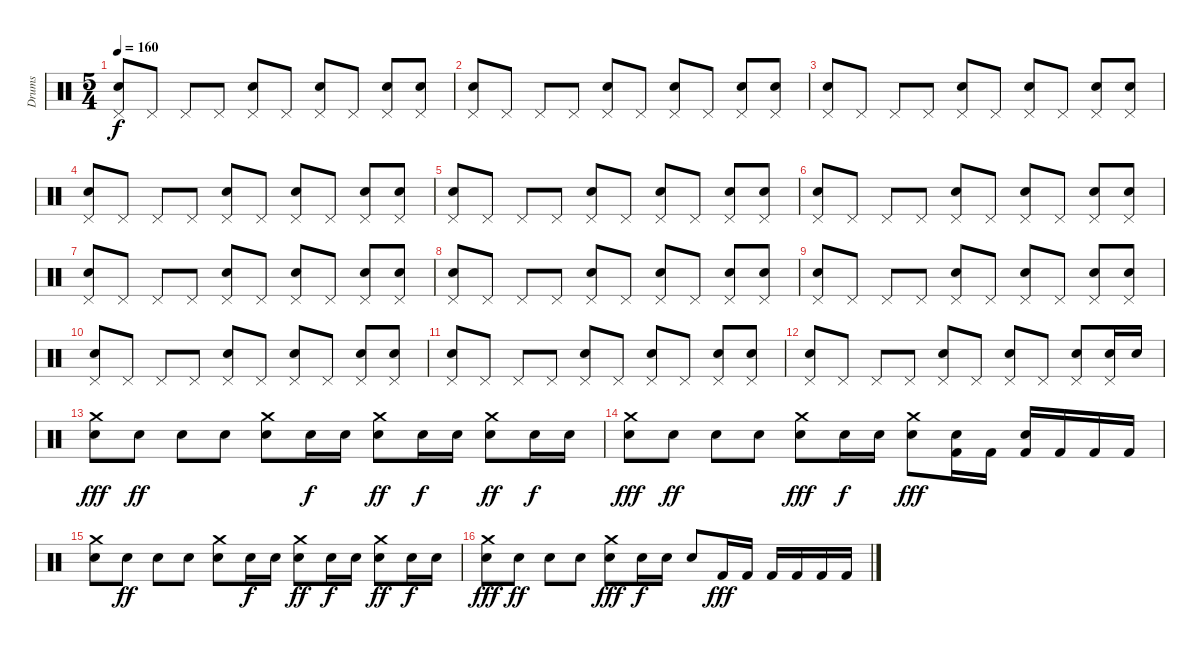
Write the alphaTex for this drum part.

\track ("Drums" "Drums") {instrument percussion}
\staff {score}
\articulation defaults
\ts (5 4)
\tempo 160
\clef neutral
\ks c
("Pedal Hi-Hat (hit)" "Electric Snare (hit)").8{dy f} "Pedal Hi-Hat (hit)".8 "Pedal Hi-Hat (hit)".8 "Pedal Hi-Hat (hit)".8 ("Pedal Hi-Hat (hit)" "Electric Snare (hit)").8 "Pedal Hi-Hat (hit)".8 ("Pedal Hi-Hat (hit)" "Electric Snare (hit)").8 "Pedal Hi-Hat (hit)".8 ("Pedal Hi-Hat (hit)" "Electric Snare (hit)").8 ("Pedal Hi-Hat (hit)" "Electric Snare (hit)").8 |
("Pedal Hi-Hat (hit)" "Electric Snare (hit)").8 "Pedal Hi-Hat (hit)".8 "Pedal Hi-Hat (hit)".8 "Pedal Hi-Hat (hit)".8 ("Pedal Hi-Hat (hit)" "Electric Snare (hit)").8 "Pedal Hi-Hat (hit)".8 ("Pedal Hi-Hat (hit)" "Electric Snare (hit)").8 "Pedal Hi-Hat (hit)".8 ("Pedal Hi-Hat (hit)" "Electric Snare (hit)").8 ("Pedal Hi-Hat (hit)" "Electric Snare (hit)").8 |
("Pedal Hi-Hat (hit)" "Electric Snare (hit)").8 "Pedal Hi-Hat (hit)".8 "Pedal Hi-Hat (hit)".8 "Pedal Hi-Hat (hit)".8 ("Pedal Hi-Hat (hit)" "Electric Snare (hit)").8 "Pedal Hi-Hat (hit)".8 ("Pedal Hi-Hat (hit)" "Electric Snare (hit)").8 "Pedal Hi-Hat (hit)".8 ("Pedal Hi-Hat (hit)" "Electric Snare (hit)").8 ("Pedal Hi-Hat (hit)" "Electric Snare (hit)").8 |
("Pedal Hi-Hat (hit)" "Electric Snare (hit)").8 "Pedal Hi-Hat (hit)".8 "Pedal Hi-Hat (hit)".8 "Pedal Hi-Hat (hit)".8 ("Pedal Hi-Hat (hit)" "Electric Snare (hit)").8 "Pedal Hi-Hat (hit)".8 ("Pedal Hi-Hat (hit)" "Electric Snare (hit)").8 "Pedal Hi-Hat (hit)".8 ("Pedal Hi-Hat (hit)" "Electric Snare (hit)").8 ("Pedal Hi-Hat (hit)" "Electric Snare (hit)").8 |
("Pedal Hi-Hat (hit)" "Electric Snare (hit)").8 "Pedal Hi-Hat (hit)".8 "Pedal Hi-Hat (hit)".8 "Pedal Hi-Hat (hit)".8 ("Pedal Hi-Hat (hit)" "Electric Snare (hit)").8 "Pedal Hi-Hat (hit)".8 ("Pedal Hi-Hat (hit)" "Electric Snare (hit)").8 "Pedal Hi-Hat (hit)".8 ("Pedal Hi-Hat (hit)" "Electric Snare (hit)").8 ("Pedal Hi-Hat (hit)" "Electric Snare (hit)").8 |
("Pedal Hi-Hat (hit)" "Electric Snare (hit)").8 "Pedal Hi-Hat (hit)".8 "Pedal Hi-Hat (hit)".8 "Pedal Hi-Hat (hit)".8 ("Pedal Hi-Hat (hit)" "Electric Snare (hit)").8 "Pedal Hi-Hat (hit)".8 ("Pedal Hi-Hat (hit)" "Electric Snare (hit)").8 "Pedal Hi-Hat (hit)".8 ("Pedal Hi-Hat (hit)" "Electric Snare (hit)").8 ("Pedal Hi-Hat (hit)" "Electric Snare (hit)").8 |
("Pedal Hi-Hat (hit)" "Electric Snare (hit)").8 "Pedal Hi-Hat (hit)".8 "Pedal Hi-Hat (hit)".8 "Pedal Hi-Hat (hit)".8 ("Pedal Hi-Hat (hit)" "Electric Snare (hit)").8 "Pedal Hi-Hat (hit)".8 ("Pedal Hi-Hat (hit)" "Electric Snare (hit)").8 "Pedal Hi-Hat (hit)".8 ("Pedal Hi-Hat (hit)" "Electric Snare (hit)").8 ("Pedal Hi-Hat (hit)" "Electric Snare (hit)").8 |
("Pedal Hi-Hat (hit)" "Electric Snare (hit)").8 "Pedal Hi-Hat (hit)".8 "Pedal Hi-Hat (hit)".8 "Pedal Hi-Hat (hit)".8 ("Pedal Hi-Hat (hit)" "Electric Snare (hit)").8 "Pedal Hi-Hat (hit)".8 ("Pedal Hi-Hat (hit)" "Electric Snare (hit)").8 "Pedal Hi-Hat (hit)".8 ("Pedal Hi-Hat (hit)" "Electric Snare (hit)").8 ("Pedal Hi-Hat (hit)" "Electric Snare (hit)").8 |
("Pedal Hi-Hat (hit)" "Electric Snare (hit)").8 "Pedal Hi-Hat (hit)".8 "Pedal Hi-Hat (hit)".8 "Pedal Hi-Hat (hit)".8 ("Pedal Hi-Hat (hit)" "Electric Snare (hit)").8 "Pedal Hi-Hat (hit)".8 ("Pedal Hi-Hat (hit)" "Electric Snare (hit)").8 "Pedal Hi-Hat (hit)".8 ("Pedal Hi-Hat (hit)" "Electric Snare (hit)").8 ("Pedal Hi-Hat (hit)" "Electric Snare (hit)").8 |
("Pedal Hi-Hat (hit)" "Electric Snare (hit)").8 "Pedal Hi-Hat (hit)".8 "Pedal Hi-Hat (hit)".8 "Pedal Hi-Hat (hit)".8 ("Pedal Hi-Hat (hit)" "Electric Snare (hit)").8 "Pedal Hi-Hat (hit)".8 ("Pedal Hi-Hat (hit)" "Electric Snare (hit)").8 "Pedal Hi-Hat (hit)".8 ("Pedal Hi-Hat (hit)" "Electric Snare (hit)").8 ("Pedal Hi-Hat (hit)" "Electric Snare (hit)").8 |
("Pedal Hi-Hat (hit)" "Electric Snare (hit)").8 "Pedal Hi-Hat (hit)".8 "Pedal Hi-Hat (hit)".8 "Pedal Hi-Hat (hit)".8 ("Pedal Hi-Hat (hit)" "Electric Snare (hit)").8 "Pedal Hi-Hat (hit)".8 ("Pedal Hi-Hat (hit)" "Electric Snare (hit)").8 "Pedal Hi-Hat (hit)".8 ("Pedal Hi-Hat (hit)" "Electric Snare (hit)").8 ("Pedal Hi-Hat (hit)" "Electric Snare (hit)").8 |
("Pedal Hi-Hat (hit)" "Electric Snare (hit)").8 "Pedal Hi-Hat (hit)".8 "Pedal Hi-Hat (hit)".8 "Pedal Hi-Hat (hit)".8 ("Pedal Hi-Hat (hit)" "Electric Snare (hit)").8 "Pedal Hi-Hat (hit)".8 ("Pedal Hi-Hat (hit)" "Electric Snare (hit)").8 "Pedal Hi-Hat (hit)".8 ("Pedal Hi-Hat (hit)" "Electric Snare (hit)").8 ("Pedal Hi-Hat (hit)" "Electric Snare (hit)").16 "Electric Snare (hit)".16 |
("Electric Snare (hit)" "Crash medium (hit)").8{dy fff} "Electric Snare (hit)".8{dy ff} "Electric Snare (hit)".8 "Electric Snare (hit)".8 ("Electric Snare (hit)" "Crash medium (hit)").8 "Electric Snare (hit)".16{dy f} "Electric Snare (hit)".16 ("Electric Snare (hit)" "Crash medium (hit)").8{dy ff} "Electric Snare (hit)".16{dy f} "Electric Snare (hit)".16 ("Electric Snare (hit)" "Crash medium (hit)").8{dy ff} "Electric Snare (hit)".16{dy f} "Electric Snare (hit)".16 |
("Electric Snare (hit)" "Crash medium (hit)").8{dy fff} "Electric Snare (hit)".8{dy ff} "Electric Snare (hit)".8 "Electric Snare (hit)".8 ("Electric Snare (hit)" "Crash medium (hit)").8{dy fff} "Electric Snare (hit)".16{dy f} "Electric Snare (hit)".16 ("Electric Snare (hit)" "Crash medium (hit)").8{dy fff} ("Kick (hit) 2" "Electric Snare (hit)").16 "Kick (hit) 2".16 ("Kick (hit) 2" "Electric Snare (hit)").16 "Kick (hit) 2".16 "Kick (hit) 2".16 "Kick (hit) 2".16 |
("Electric Snare (hit)" "Crash medium (hit)").8 "Electric Snare (hit)".8{dy ff} "Electric Snare (hit)".8 "Electric Snare (hit)".8 ("Electric Snare (hit)" "Crash medium (hit)").8 "Electric Snare (hit)".16{dy f} "Electric Snare (hit)".16 ("Electric Snare (hit)" "Crash medium (hit)").8{dy ff} "Electric Snare (hit)".16{dy f} "Electric Snare (hit)".16 ("Electric Snare (hit)" "Crash medium (hit)").8{dy ff} "Electric Snare (hit)".16{dy f} "Electric Snare (hit)".16 |
("Electric Snare (hit)" "Crash medium (hit)").8{dy fff} "Electric Snare (hit)".8{dy ff} "Electric Snare (hit)".8 "Electric Snare (hit)".8 ("Electric Snare (hit)" "Crash medium (hit)").8{dy fff} "Electric Snare (hit)".16{dy f} "Electric Snare (hit)".16 "Electric Snare (hit)".8 "Kick (hit) 2".16{dy fff} "Kick (hit) 2".16 "Kick (hit) 2".16 "Kick (hit) 2".16 "Kick (hit) 2".16 "Kick (hit) 2".16
